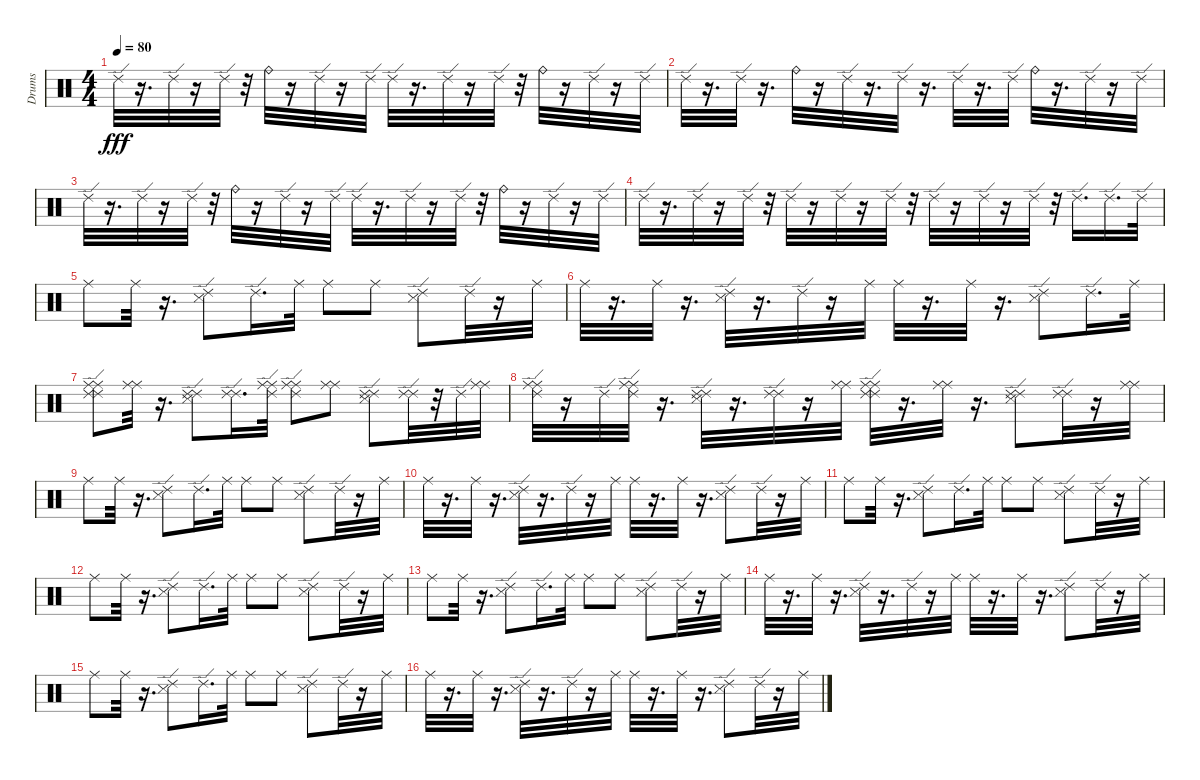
\track ("Drums   " "Drums   ") {instrument percussion}
\staff {score}
\articulation defaults
\ts (4 4)
\tempo 80
\clef neutral
\ks c "Ride (edge) 2".32{dy fff}
r.16{d} "Ride (edge) 2".32 r.16 "Ride (edge) 2".32 r.32 "Ride (bell)".32 r.16 "Ride (edge) 2".32 r.16 "Ride (edge) 2".32 "Ride (edge) 2".32 r.16{d} "Ride (edge) 2".32 r.16 "Ride (edge) 2".32 r.32 "Ride (bell)".32 r.16 "Ride (edge) 2".32 r.16 "Ride (edge) 2".32 |
"Ride (edge) 2".32 r.16{d} "Ride (edge) 2".32 r.16{d} "Ride (bell)".32 r.16 "Ride (edge) 2".32 r.16{d} "Ride (edge) 2".32 r.16{d} "Ride (edge) 2".32 r.16{d} "Ride (edge) 2".32 "Ride (bell)".32 r.16{d} "Ride (edge) 2".32 r.16 "Ride (edge) 2".32 |
"Ride (edge) 2".32 r.16{d} "Ride (edge) 2".32 r.16 "Ride (edge) 2".32 r.32 "Ride (bell)".32 r.16 "Ride (edge) 2".32 r.16 "Ride (edge) 2".32 "Ride (edge) 2".32 r.16{d} "Ride (edge) 2".32 r.16 "Ride (edge) 2".32 r.32 "Ride (bell)".32 r.16 "Ride (edge) 2".32 r.16 "Ride (edge) 2".32 |
"Ride (edge) 2".32 r.16{d} "Ride (edge) 2".32 r.16 "Ride (edge) 2".32 r.32 "Ride (edge) 2".32 r.16 "Ride (edge) 2".32 r.16 "Ride (edge) 2".32 r.32 "Ride (edge) 2".32 r.16 "Ride (edge) 2".32 r.16 "Ride (edge) 2".32 r.32 "Ride (edge) 2".16{d} "Ride (edge) 2".16{d} "Ride (edge) 2".32 |
"Ride (middle)".8{volume 9} "Ride (middle)".32 r.16{d} ("Snare (side stick) 3" "Ride (edge) 2").8 "Ride (edge) 2".16{d volume 9} "Ride (middle)".32 "Ride (middle)".8 "Ride (middle)".8{volume 9} ("Snare (side stick) 3" "Ride (edge) 2").8 "Ride (edge) 2".32 r.16 "Ride (middle)".32{volume 9} |
"Ride (middle)".32 r.16{d} "Ride (middle)".32 r.16{d} ("Snare (side stick) 3" "Ride (edge) 2").32{volume 9} r.16{d} "Ride (edge) 2".32 r.16 "Ride (middle)".32 "Ride (middle)".32{volume 9} r.16{d} "Ride (middle)".32 r.16{d} ("Snare (side stick) 3" "Ride (edge) 2").8 "Ride (edge) 2".16{d volume 10} "Ride (middle)".32 |
("Ride (middle)" "Ride (middle)" "Ride (edge) 2" "Ride (edge) 2").8 ("Ride (middle)" "Ride (middle)").32{volume 10} r.16{d} ("Snare (side stick) 3" "Ride (edge) 2" "Ride (edge) 2").8 ("Ride (edge) 2" "Ride (edge) 2").16{d} ("Ride (edge) 2" "Ride (middle)" "Ride (middle)").32{volume 10} ("Ride (middle)" "Ride (middle)" "Ride (edge) 2").8 ("Ride (middle)" "Ride (middle)").8 ("Snare (side stick) 3" "Ride (edge) 2" "Ride (edge) 2").8{volume 10} ("Ride (edge) 2" "Ride (edge) 2").32 r.32 "Ride (edge) 2".32 ("Ride (middle)" "Ride (middle)").32 |
("Ride (middle)" "Ride (middle)" "Ride (edge) 2").32{volume 10} r.16 "Ride (edge) 2".32 ("Ride (middle)" "Ride (middle)" "Ride (edge) 2").32 r.16{d} ("Snare (side stick) 3" "Ride (edge) 2" "Ride (edge) 2").32 r.16{d} ("Ride (edge) 2" "Ride (edge) 2").32{volume 10} r.16 ("Ride (middle)" "Ride (middle)").32 ("Ride (middle)" "Ride (middle)" "Ride (edge) 2" "Ride (edge) 2").32 r.16{d} ("Ride (middle)" "Ride (middle)").32{volume 10} r.16{d} ("Snare (side stick) 3" "Ride (edge) 2" "Ride (edge) 2").8 ("Ride (edge) 2" "Ride (edge) 2").32 r.16 ("Ride (middle)" "Ride (middle)").32{volume 10} |
"Ride (middle)".8 "Ride (middle)".32 r.16{d} ("Snare (side stick) 3" "Ride (edge) 2").8{volume 10} "Ride (edge) 2".16{d} "Ride (middle)".32 "Ride (middle)".8{volume 11} "Ride (middle)".8 ("Snare (side stick) 3" "Ride (edge) 2").8 "Ride (edge) 2".32{volume 11} r.16 "Ride (middle)".32 |
"Ride (middle)".32 r.16{d} "Ride (middle)".32{volume 11} r.16{d} ("Snare (side stick) 3" "Ride (edge) 2").32 r.16{d} "Ride (edge) 2".32 r.16 "Ride (middle)".32{volume 11} "Ride (middle)".32 r.16{d} "Ride (middle)".32 r.16{d} ("Snare (side stick) 3" "Ride (edge) 2").8{volume 11} "Ride (edge) 2".32 r.16 "Ride (middle)".32 |
"Ride (middle)".8{volume 11} "Ride (middle)".32 r.16{d} ("Snare (side stick) 3" "Ride (edge) 2").8 "Ride (edge) 2".16{d volume 11} "Ride (middle)".32 "Ride (middle)".8 "Ride (middle)".8{volume 12} ("Snare (side stick) 3" "Ride (edge) 2").8 "Ride (edge) 2".32 r.16 "Ride (middle)".32{volume 12} |
"Ride (middle)".8 "Ride (middle)".32 r.16{d} ("Snare (side stick) 3" "Ride (edge) 2").8{volume 12} "Ride (edge) 2".16{d} "Ride (middle)".32 "Ride (middle)".8{volume 12} "Ride (middle)".8 ("Snare (side stick) 3" "Ride (edge) 2").8 "Ride (edge) 2".32{volume 12} r.16 "Ride (middle)".32 |
"Ride (middle)".8 "Ride (middle)".32{volume 12} r.16{d} ("Snare (side stick) 3" "Ride (edge) 2").8 "Ride (edge) 2".16{d} "Ride (middle)".32{volume 12} "Ride (middle)".8 "Ride (middle)".8 ("Snare (side stick) 3" "Ride (edge) 2").8{volume 12} "Ride (edge) 2".32 r.16 "Ride (middle)".32 |
"Ride (middle)".32{volume 12} r.16{d} "Ride (middle)".32 r.16{d} ("Snare (side stick) 3" "Ride (edge) 2").32 r.16{d} "Ride (edge) 2".32 r.16 "Ride (middle)".32 "Ride (middle)".32 r.16{d} "Ride (middle)".32 r.16{d} ("Snare (side stick) 3" "Ride (edge) 2").8 "Ride (edge) 2".32 r.16 "Ride (middle)".32 |
"Ride (middle)".8 "Ride (middle)".32 r.16{d} ("Snare (side stick) 3" "Ride (edge) 2").8 "Ride (edge) 2".16{d} "Ride (middle)".32 "Ride (middle)".8 "Ride (middle)".8 ("Snare (side stick) 3" "Ride (edge) 2").8 "Ride (edge) 2".32 r.16 "Ride (middle)".32 |
"Ride (middle)".32 r.16{d} "Ride (middle)".32 r.16{d} ("Snare (side stick) 3" "Ride (edge) 2").32 r.16{d} "Ride (edge) 2".32 r.16 "Ride (middle)".32 "Ride (middle)".32 r.16{d} "Ride (middle)".32 r.16{d} ("Snare (side stick) 3" "Ride (edge) 2").8 "Ride (edge) 2".32 r.16 "Ride (middle)".32
